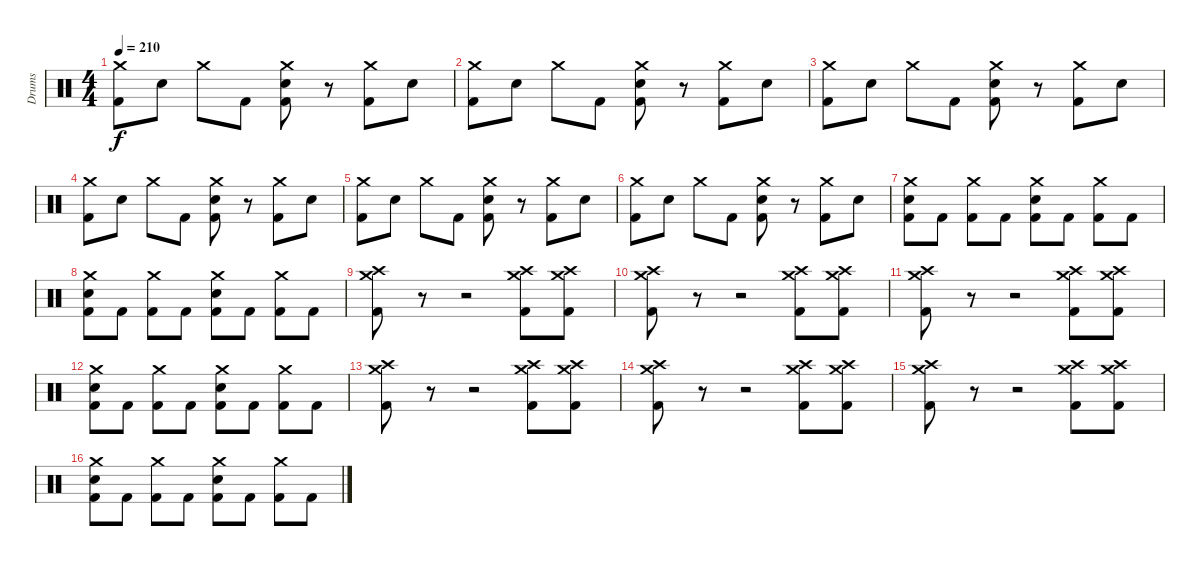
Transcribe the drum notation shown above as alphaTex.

\track ("Drums" "Drums") {instrument percussion}
\staff {score}
\articulation defaults
\ts (4 4)
\tempo 210
\clef neutral
\ks c
("Crash medium (hit)" "Kick (hit) 2").8{dy f} "Snare (hit) 2".8 "Crash medium (hit)".8 "Kick (hit) 2".8 ("Crash medium (hit)" "Snare (hit) 2" "Kick (hit) 2").8 r.8 ("Crash medium (hit)" "Kick (hit) 2").8 "Snare (hit) 2".8 |
("Crash medium (hit)" "Kick (hit) 2").8 "Snare (hit) 2".8 "Crash medium (hit)".8 "Kick (hit) 2".8 ("Crash medium (hit)" "Snare (hit) 2" "Kick (hit) 2").8 r.8 ("Crash medium (hit)" "Kick (hit) 2").8 "Snare (hit) 2".8 |
("Crash medium (hit)" "Kick (hit) 2").8 "Snare (hit) 2".8 "Crash medium (hit)".8 "Kick (hit) 2".8 ("Crash medium (hit)" "Snare (hit) 2" "Kick (hit) 2").8 r.8 ("Crash medium (hit)" "Kick (hit) 2").8 "Snare (hit) 2".8 |
("Crash medium (hit)" "Kick (hit) 2").8 "Snare (hit) 2".8 "Crash medium (hit)".8 "Kick (hit) 2".8 ("Crash medium (hit)" "Snare (hit) 2" "Kick (hit) 2").8 r.8 ("Crash medium (hit)" "Kick (hit) 2").8 "Snare (hit) 2".8 |
("Crash medium (hit)" "Kick (hit) 2").8 "Snare (hit) 2".8 "Crash medium (hit)".8 "Kick (hit) 2".8 ("Crash medium (hit)" "Snare (hit) 2" "Kick (hit) 2").8 r.8 ("Crash medium (hit)" "Kick (hit) 2").8 "Snare (hit) 2".8 |
("Crash medium (hit)" "Kick (hit) 2").8 "Snare (hit) 2".8 "Crash medium (hit)".8 "Kick (hit) 2".8 ("Crash medium (hit)" "Snare (hit) 2" "Kick (hit) 2").8 r.8 ("Crash medium (hit)" "Kick (hit) 2").8 "Snare (hit) 2".8 |
("Crash medium (hit)" "Snare (hit) 2" "Kick (hit) 2").8 "Kick (hit) 2".8 ("Crash medium (hit)" "Kick (hit) 2").8 "Kick (hit) 2".8 ("Crash medium (hit)" "Snare (hit) 2" "Kick (hit) 2").8 "Kick (hit) 2".8 ("Crash medium (hit)" "Kick (hit) 2").8 "Kick (hit) 2".8 |
("Crash medium (hit)" "Snare (hit) 2" "Kick (hit) 2").8 "Kick (hit) 2".8 ("Crash medium (hit)" "Kick (hit) 2").8 "Kick (hit) 2".8 ("Crash medium (hit)" "Snare (hit) 2" "Kick (hit) 2").8 "Kick (hit) 2".8 ("Crash medium (hit)" "Kick (hit) 2").8 "Kick (hit) 2".8 |
("Crash medium (hit)" "Crash high (hit)" "Kick (hit) 2").8 r.8 r.2 ("Crash medium (hit)" "Crash high (hit)" "Kick (hit) 2").8 ("Crash medium (hit)" "Crash high (hit)" "Kick (hit) 2").8 |
("Crash medium (hit)" "Crash high (hit)" "Kick (hit) 2").8 r.8 r.2 ("Crash medium (hit)" "Crash high (hit)" "Kick (hit) 2").8 ("Crash medium (hit)" "Crash high (hit)" "Kick (hit) 2").8 |
("Crash medium (hit)" "Crash high (hit)" "Kick (hit) 2").8 r.8 r.2 ("Crash medium (hit)" "Crash high (hit)" "Kick (hit) 2").8 ("Crash medium (hit)" "Crash high (hit)" "Kick (hit) 2").8 |
("Crash medium (hit)" "Snare (hit) 2" "Kick (hit) 2").8 "Kick (hit) 2".8 ("Crash medium (hit)" "Kick (hit) 2").8 "Kick (hit) 2".8 ("Crash medium (hit)" "Snare (hit) 2" "Kick (hit) 2").8 "Kick (hit) 2".8 ("Crash medium (hit)" "Kick (hit) 2").8 "Kick (hit) 2".8 |
("Crash medium (hit)" "Crash high (hit)" "Kick (hit) 2").8 r.8 r.2 ("Crash medium (hit)" "Crash high (hit)" "Kick (hit) 2").8 ("Crash medium (hit)" "Crash high (hit)" "Kick (hit) 2").8 |
("Crash medium (hit)" "Crash high (hit)" "Kick (hit) 2").8 r.8 r.2 ("Crash medium (hit)" "Crash high (hit)" "Kick (hit) 2").8 ("Crash medium (hit)" "Crash high (hit)" "Kick (hit) 2").8 |
("Crash medium (hit)" "Crash high (hit)" "Kick (hit) 2").8 r.8 r.2 ("Crash medium (hit)" "Crash high (hit)" "Kick (hit) 2").8 ("Crash medium (hit)" "Crash high (hit)" "Kick (hit) 2").8 |
("Crash medium (hit)" "Snare (hit) 2" "Kick (hit) 2").8 "Kick (hit) 2".8 ("Crash medium (hit)" "Kick (hit) 2").8 "Kick (hit) 2".8 ("Crash medium (hit)" "Snare (hit) 2" "Kick (hit) 2").8 "Kick (hit) 2".8 ("Crash medium (hit)" "Kick (hit) 2").8 "Kick (hit) 2".8
